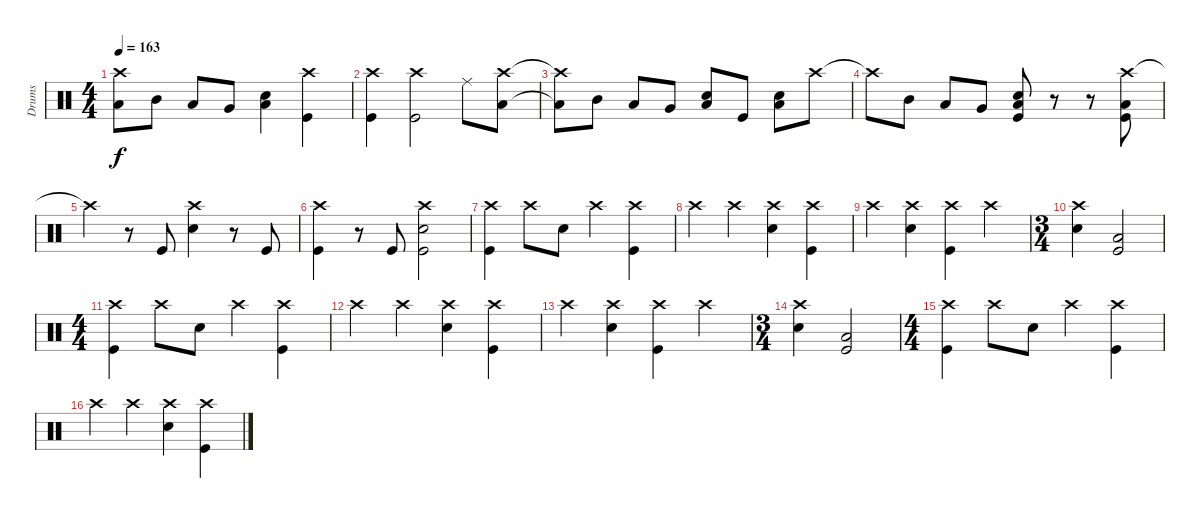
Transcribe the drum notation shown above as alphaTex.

\track ("Drums" "Drums") {instrument percussion}
\staff {score}
\articulation defaults
\ts (4 4)
\tempo 163
\clef neutral
\ks c
("Crash high (hit)"{t} "Low Floor Tom (hit)"{t}).8{dy f} "Mid Tom (hit)".8 "Low Tom (hit)".8 "Very Low Tom (hit)".8 ("Snare (hit) 2" "Low Floor Tom (hit)").4 ("Crash high (hit)" "Kick (hit)").4 |
("Crash high (hit)" "Kick (hit)").4 ("Crash high (hit)" "Kick (hit)").2 "Ride (middle)".8 ("Crash high (hit)" "Low Floor Tom (hit)").8 |
("Crash high (hit)"{t} "Low Floor Tom (hit)"{t}).8 "Mid Tom (hit)".8 "Low Tom (hit)".8 "Very Low Tom (hit)".8 ("Snare (hit) 2" "Low Floor Tom (hit)").8 "Kick (hit)".8 ("Snare (hit) 2" "Low Floor Tom (hit)").8 "Crash high (hit)".8 |
"Crash high (hit)"{t}.8 "Mid Tom (hit)".8 "Low Tom (hit)".8 "Very Low Tom (hit)".8 ("Snare (hit) 2" "Low Floor Tom (hit)" "Kick (hit)").8 r.8 r.8 ("Crash high (hit)" "Low Floor Tom (hit)" "Kick (hit)").8 |
"Crash high (hit)"{t}.4 r.8 "Kick (hit)".8 ("Crash high (hit)" "Snare (hit) 2").4 r.8 "Kick (hit)".8 |
("Crash high (hit)" "Kick (hit)").4 r.8 "Kick (hit)".8 ("Crash high (hit)" "Snare (hit) 2" "Kick (hit)").2 |
("Crash high (hit)" "Kick (hit)").4 "Crash high (hit)".8 "Snare (hit) 2".8 "Crash high (hit)".4 ("Crash high (hit)" "Kick (hit)").4 |
"Crash high (hit)".4 "Crash high (hit)".4 ("Crash high (hit)" "Snare (hit) 2").4 ("Crash high (hit)" "Kick (hit)").4 |
"Crash high (hit)".4 ("Crash high (hit)" "Snare (hit) 2").4 ("Crash high (hit)" "Kick (hit)").4 "Crash high (hit)".4 |
\ts (3 4)
("Crash high (hit)" "Snare (hit) 2").4 ("Low Floor Tom (hit)" "Kick (hit)").2 |
\ts (4 4)
("Crash high (hit)" "Kick (hit)").4 "Crash high (hit)".8 "Snare (hit) 2".8 "Crash high (hit)".4 ("Crash high (hit)" "Kick (hit)").4 |
"Crash high (hit)".4 "Crash high (hit)".4 ("Crash high (hit)" "Snare (hit) 2").4 ("Crash high (hit)" "Kick (hit)").4 |
"Crash high (hit)".4 ("Crash high (hit)" "Snare (hit) 2").4 ("Crash high (hit)" "Kick (hit)").4 "Crash high (hit)".4 |
\ts (3 4)
("Crash high (hit)" "Snare (hit) 2").4 ("Low Floor Tom (hit)" "Kick (hit)").2 |
\ts (4 4)
("Crash high (hit)" "Kick (hit)").4 "Crash high (hit)".8 "Snare (hit) 2".8 "Crash high (hit)".4 ("Crash high (hit)" "Kick (hit)").4 |
"Crash high (hit)".4 "Crash high (hit)".4 ("Crash high (hit)" "Snare (hit) 2").4 ("Crash high (hit)" "Kick (hit)").4
